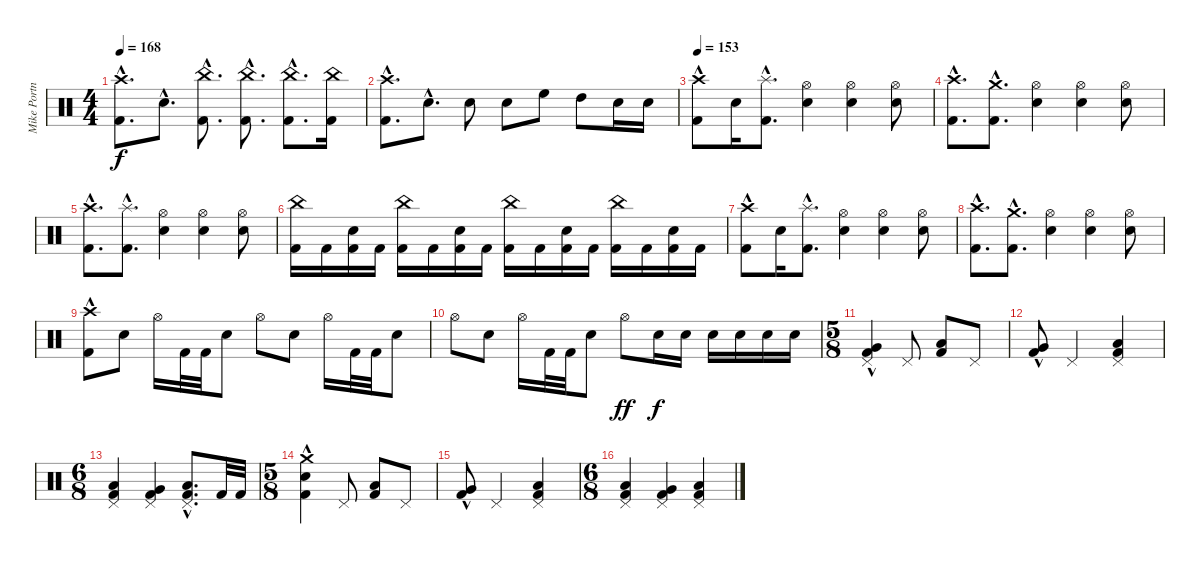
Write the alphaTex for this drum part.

\track ("Mike Portnoy Drums" "Mike Portn") {instrument percussion}
\staff {score}
\articulation defaults
\ts (4 4)
\tempo 168
\clef neutral
\ks c
("Crash high (hit)"{hac} "Kick (hit) 2"{hac}).8{d dy f} "Electric Snare (hit)"{hac}.8{d} ("Kick (hit) 2"{hac} "China (hit)"{hac}).8{d} ("Kick (hit) 2"{hac} "China (hit)"{hac}).8{d} ("China (hit)"{hac} "Kick (hit) 2"{hac}).8{d} ("Kick (hit) 2" "China (hit)").16 |
("Kick (hit) 2"{hac} "Crash high (hit)"{hac}).8{d} "Electric Snare (hit)"{hac}.8{d} "Electric Snare (hit)".8 "Electric Snare (hit)".8 "High Floor Tom (hit)".8 "High Tom (hit)".8 "Electric Snare (hit)".16 "Electric Snare (hit)".16 |
\tempo 153
("Crash high (hit)"{hac} "Kick (hit) 2").8 "Electric Snare (hit)".16 ("Splash (hit)"{hac} "Kick (hit) 2"{hac}).8{d} ("Hi-Hat (open)" "Electric Snare (hit)").4 ("Hi-Hat (open)" "Electric Snare (hit)").4 ("Hi-Hat (open)" "Electric Snare (hit)").8 |
("Kick (hit) 2"{hac} "Crash high (hit)"{hac}).8{d} ("Kick (hit) 2"{hac} "Crash medium (hit)"{hac}).8{d} ("Hi-Hat (open)" "Electric Snare (hit)").4 ("Hi-Hat (open)" "Electric Snare (hit)").4 ("Hi-Hat (open)" "Electric Snare (hit)").8 |
("Crash high (hit)"{hac} "Kick (hit) 2"{hac}).8{d} ("Splash (hit)"{hac} "Kick (hit) 2"{hac}).8{d} ("Hi-Hat (open)" "Electric Snare (hit)").4 ("Hi-Hat (open)" "Electric Snare (hit)").4 ("Hi-Hat (open)" "Electric Snare (hit)").8 |
("Kick (hit) 2" "China (hit)").16 "Kick (hit) 2".16 ("Electric Snare (hit)" "Kick (hit) 2").16 "Kick (hit) 2".16 ("Kick (hit) 2" "China (hit)").16 "Kick (hit) 2".16 ("Electric Snare (hit)" "Kick (hit) 2").16 "Kick (hit) 2".16 ("Kick (hit) 2" "China (hit)").16 "Kick (hit) 2".16 ("Electric Snare (hit)" "Kick (hit) 2").16 "Kick (hit) 2".16 ("Kick (hit) 2" "China (hit)").16 "Kick (hit) 2".16 ("Electric Snare (hit)" "Kick (hit) 2").16 "Kick (hit) 2".16 |
("Kick (hit) 2" "Crash high (hit)"{hac}).8 "Electric Snare (hit)".16 ("Splash (hit)"{hac} "Kick (hit) 2"{hac}).8{d} ("Hi-Hat (open)" "Electric Snare (hit)").4 ("Hi-Hat (open)" "Electric Snare (hit)").4 ("Hi-Hat (open)" "Electric Snare (hit)").8 |
("Kick (hit) 2"{hac} "Crash high (hit)"{hac}).8{d} ("Kick (hit) 2"{hac} "Crash medium (hit)"{hac}).8{d} ("Hi-Hat (open)" "Electric Snare (hit)").4 ("Hi-Hat (open)" "Electric Snare (hit)").4 ("Hi-Hat (open)" "Electric Snare (hit)").8 |
("Kick (hit) 2"{hac} "Crash high (hit)").8 "Electric Snare (hit)".8 "Hi-Hat (open)".16 "Kick (hit) 2".32 "Kick (hit) 2".32 "Electric Snare (hit)".8 "Hi-Hat (open)".8 "Electric Snare (hit)".8 "Hi-Hat (open)".16 "Kick (hit) 2".32 "Kick (hit) 2".32 "Electric Snare (hit)".8 |
"Hi-Hat (open)".8 "Electric Snare (hit)".8 "Hi-Hat (open)".16 "Kick (hit) 2".32 "Kick (hit) 2".32 "Electric Snare (hit)".8 "Hi-Hat (open)".8{dy ff} "Electric Snare (hit)".16{dy f} "Electric Snare (hit)".16 "Electric Snare (hit)".16 "Electric Snare (hit)".16 "Electric Snare (hit)".16 "Electric Snare (hit)".16 |
\ts (5 8)
("Kick (hit) 2"{hac} "Pedal Hi-Hat (hit)" "Very Low Tom (hit)"{hac}).4 "Pedal Hi-Hat (hit)".8 ("Low Floor Tom (hit)" "Kick (hit) 2").8 "Pedal Hi-Hat (hit)".8 |
("Very Low Tom (hit)"{hac} "Kick (hit) 2"{hac}).8 "Pedal Hi-Hat (hit)".4 ("Low Floor Tom (hit)" "Kick (hit) 2" "Pedal Hi-Hat (hit)").4 |
\ts (6 8)
("Kick (hit) 2" "Low Tom (hit)" "Pedal Hi-Hat (hit)").4 ("Very Low Tom (hit)" "Kick (hit) 2" "Pedal Hi-Hat (hit)").4 ("Kick (hit) 2"{hac} "Low Floor Tom (hit)"{hac} "Pedal Hi-Hat (hit)"{hac}).8{d} "Kick (hit) 2".32 "Kick (hit) 2".32 |
\ts (5 8)
("Kick (hit) 2"{hac} "Electric Snare (hit)"{hac} "Crash medium (hit)").4 "Pedal Hi-Hat (hit)".8 ("Low Floor Tom (hit)" "Kick (hit) 2").8 "Pedal Hi-Hat (hit)".8 |
("Very Low Tom (hit)"{hac} "Kick (hit) 2"{hac}).8 "Pedal Hi-Hat (hit)".4 ("Low Floor Tom (hit)" "Kick (hit) 2" "Pedal Hi-Hat (hit)").4 |
\ts (6 8)
("Kick (hit) 2" "Low Tom (hit)" "Pedal Hi-Hat (hit)").4 ("Very Low Tom (hit)" "Kick (hit) 2" "Pedal Hi-Hat (hit)").4 ("Pedal Hi-Hat (hit)" "Low Floor Tom (hit)" "Kick (hit) 2").4
